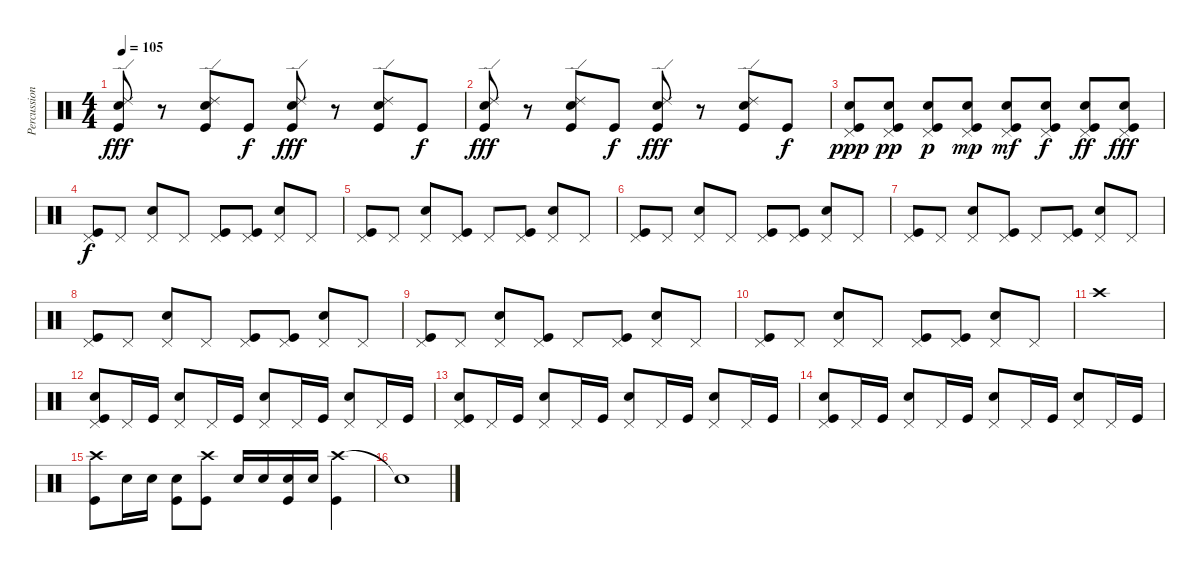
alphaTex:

\track ("Percussion" "Percussion") {instrument percussion bank 255}
\staff {score}
\articulation defaults
\ts (4 4)
\tempo 105
\clef neutral
\ks c
("Ride (edge) 2" "Snare (hit) 2" "Kick (hit)").8{dy fff} r.8 ("Ride (edge) 2" "Snare (hit) 2" "Kick (hit)").8 "Kick (hit)".8{dy f} ("Ride (edge) 2" "Snare (hit) 2" "Kick (hit)").8{dy fff} r.8 ("Ride (edge) 2" "Snare (hit) 2" "Kick (hit)").8 "Kick (hit)".8{dy f} |
("Ride (edge) 2" "Snare (hit) 2" "Kick (hit)").8{dy fff} r.8 ("Ride (edge) 2" "Snare (hit) 2" "Kick (hit)").8 "Kick (hit)".8{dy f} ("Ride (edge) 2" "Snare (hit) 2" "Kick (hit)").8{dy fff} r.8 ("Ride (edge) 2" "Snare (hit) 2" "Kick (hit)").8 "Kick (hit)".8{dy f} |
("Pedal Hi-Hat (hit)" "Snare (hit) 2" "Kick (hit)").8{dy ppp} ("Pedal Hi-Hat (hit)" "Snare (hit) 2" "Kick (hit)").8{dy pp} ("Pedal Hi-Hat (hit)" "Snare (hit) 2" "Kick (hit)").8{dy p} ("Pedal Hi-Hat (hit)" "Snare (hit) 2" "Kick (hit)").8{dy mp} ("Pedal Hi-Hat (hit)" "Snare (hit) 2" "Kick (hit)").8{dy mf} ("Pedal Hi-Hat (hit)" "Snare (hit) 2" "Kick (hit)").8{dy f} ("Pedal Hi-Hat (hit)" "Snare (hit) 2" "Kick (hit)").8{dy ff} ("Pedal Hi-Hat (hit)" "Snare (hit) 2" "Kick (hit)").8{dy fff} |
("Pedal Hi-Hat (hit)" "Kick (hit)").8{dy f} "Pedal Hi-Hat (hit)".8 ("Pedal Hi-Hat (hit)" "Snare (hit) 2").8 "Pedal Hi-Hat (hit)".8 ("Pedal Hi-Hat (hit)" "Kick (hit)").8 ("Pedal Hi-Hat (hit)" "Kick (hit)").8 ("Pedal Hi-Hat (hit)" "Snare (hit) 2").8 "Pedal Hi-Hat (hit)".8 |
("Pedal Hi-Hat (hit)" "Kick (hit)").8 "Pedal Hi-Hat (hit)".8 ("Pedal Hi-Hat (hit)" "Snare (hit) 2").8 ("Pedal Hi-Hat (hit)" "Kick (hit)").8 "Pedal Hi-Hat (hit)".8 ("Pedal Hi-Hat (hit)" "Kick (hit)").8 ("Pedal Hi-Hat (hit)" "Snare (hit) 2").8 "Pedal Hi-Hat (hit)".8 |
("Pedal Hi-Hat (hit)" "Kick (hit)").8 "Pedal Hi-Hat (hit)".8 ("Pedal Hi-Hat (hit)" "Snare (hit) 2").8 "Pedal Hi-Hat (hit)".8 ("Pedal Hi-Hat (hit)" "Kick (hit)").8 ("Pedal Hi-Hat (hit)" "Kick (hit)").8 ("Pedal Hi-Hat (hit)" "Snare (hit) 2").8 "Pedal Hi-Hat (hit)".8 |
("Pedal Hi-Hat (hit)" "Kick (hit)").8 "Pedal Hi-Hat (hit)".8 ("Pedal Hi-Hat (hit)" "Snare (hit) 2").8 ("Pedal Hi-Hat (hit)" "Kick (hit)").8 "Pedal Hi-Hat (hit)".8 ("Pedal Hi-Hat (hit)" "Kick (hit)").8 ("Pedal Hi-Hat (hit)" "Snare (hit) 2").8 "Pedal Hi-Hat (hit)".8 |
("Pedal Hi-Hat (hit)" "Kick (hit)").8 "Pedal Hi-Hat (hit)".8 ("Pedal Hi-Hat (hit)" "Snare (hit) 2").8 "Pedal Hi-Hat (hit)".8 ("Pedal Hi-Hat (hit)" "Kick (hit)").8 ("Pedal Hi-Hat (hit)" "Kick (hit)").8 ("Pedal Hi-Hat (hit)" "Snare (hit) 2").8 "Pedal Hi-Hat (hit)".8 |
("Pedal Hi-Hat (hit)" "Kick (hit)").8 "Pedal Hi-Hat (hit)".8 ("Pedal Hi-Hat (hit)" "Snare (hit) 2").8 ("Pedal Hi-Hat (hit)" "Kick (hit)").8 "Pedal Hi-Hat (hit)".8 ("Pedal Hi-Hat (hit)" "Kick (hit)").8 ("Pedal Hi-Hat (hit)" "Snare (hit) 2").8 "Pedal Hi-Hat (hit)".8 |
("Pedal Hi-Hat (hit)" "Kick (hit)").8 "Pedal Hi-Hat (hit)".8 ("Pedal Hi-Hat (hit)" "Snare (hit) 2").8 "Pedal Hi-Hat (hit)".8 ("Pedal Hi-Hat (hit)" "Kick (hit)").8 ("Pedal Hi-Hat (hit)" "Kick (hit)").8 ("Pedal Hi-Hat (hit)" "Snare (hit) 2").8 "Pedal Hi-Hat (hit)".8 |
"Crash high (hit)".1 |
("Pedal Hi-Hat (hit)" "Snare (hit) 2" "Kick (hit)").8 "Pedal Hi-Hat (hit)".16 "Kick (hit)".16 ("Pedal Hi-Hat (hit)" "Snare (hit) 2").8 "Pedal Hi-Hat (hit)".16 "Kick (hit)".16 ("Pedal Hi-Hat (hit)" "Snare (hit) 2").8 "Pedal Hi-Hat (hit)".16 "Kick (hit)".16 ("Pedal Hi-Hat (hit)" "Snare (hit) 2").8 "Pedal Hi-Hat (hit)".16 "Kick (hit)".16 |
("Pedal Hi-Hat (hit)" "Snare (hit) 2" "Kick (hit)").8 "Pedal Hi-Hat (hit)".16 "Kick (hit)".16 ("Pedal Hi-Hat (hit)" "Snare (hit) 2").8 "Pedal Hi-Hat (hit)".16 "Kick (hit)".16 ("Pedal Hi-Hat (hit)" "Snare (hit) 2").8 "Pedal Hi-Hat (hit)".16 "Kick (hit)".16 ("Pedal Hi-Hat (hit)" "Snare (hit) 2").8 "Pedal Hi-Hat (hit)".16 "Kick (hit)".16 |
("Pedal Hi-Hat (hit)" "Snare (hit) 2" "Kick (hit)").8 "Pedal Hi-Hat (hit)".16 "Kick (hit)".16 ("Pedal Hi-Hat (hit)" "Snare (hit) 2").8 "Pedal Hi-Hat (hit)".16 "Kick (hit)".16 ("Pedal Hi-Hat (hit)" "Snare (hit) 2").8 "Pedal Hi-Hat (hit)".16 "Kick (hit)".16 ("Pedal Hi-Hat (hit)" "Snare (hit) 2").8 "Pedal Hi-Hat (hit)".16 "Kick (hit)".16 |
("Crash high (hit)" "Kick (hit)").8 "Snare (hit) 2".16 "Snare (hit) 2".16 ("Snare (hit) 2" "Kick (hit)").8 ("Crash high (hit)" "Kick (hit)").8 "Snare (hit) 2".16 "Snare (hit) 2".16 ("Snare (hit) 2" "Kick (hit)").16 "Snare (hit) 2".16 ("Crash high (hit)" "Kick (hit)").4 |
"Snare (hit)"{t}.1
